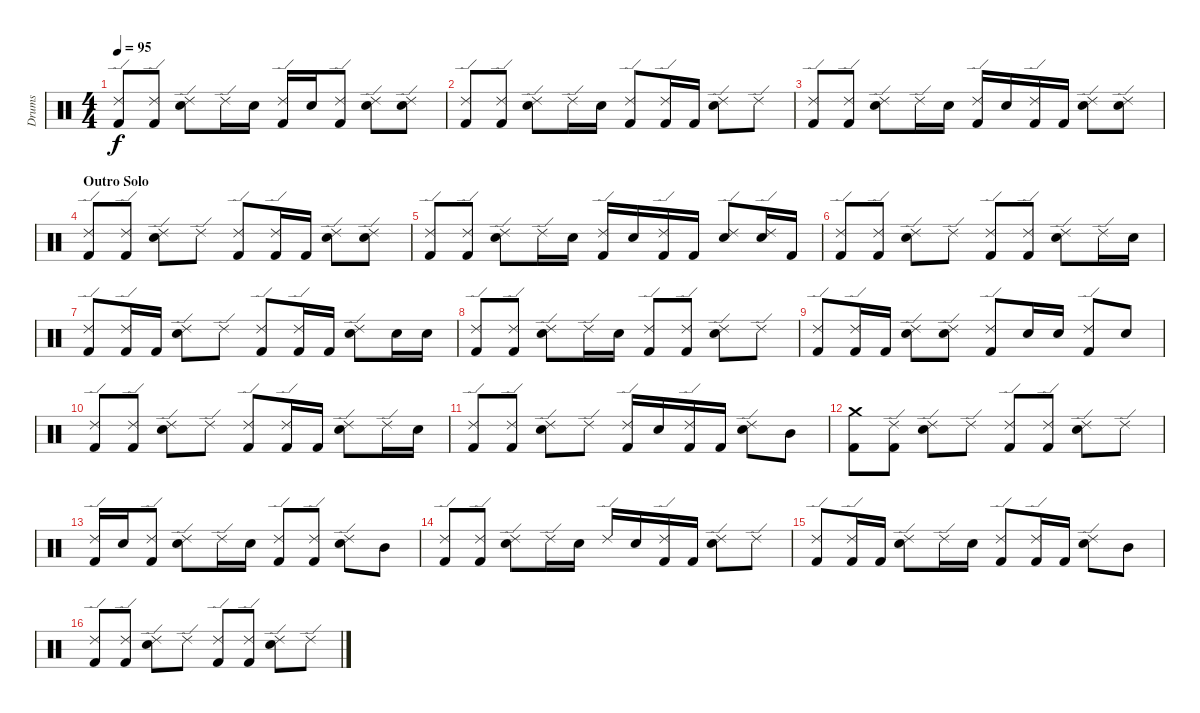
\track ("Drums" "Drums") {instrument percussion}
\staff {score}
\articulation defaults
\ts (4 4)
\tempo 95
\clef neutral
\ks c
("Ride (edge) 2" "Kick (hit) 2").8{dy f} ("Ride (edge) 2" "Kick (hit) 2").8 ("Ride (edge) 2" "Snare (hit) 2").8 "Ride (edge) 2".16 "Snare (hit) 2".16 ("Ride (edge) 2" "Kick (hit) 2").16 "Snare (hit) 2".16 ("Ride (edge) 2" "Kick (hit) 2").8 ("Ride (edge) 2" "Snare (hit) 2").8 ("Ride (edge) 2" "Snare (hit) 2").8 |
("Ride (edge) 2" "Kick (hit) 2").8 ("Ride (edge) 2" "Kick (hit) 2").8 ("Ride (edge) 2" "Snare (hit) 2").8 "Ride (edge) 2".16 "Snare (hit) 2".16 ("Ride (edge) 2" "Kick (hit) 2").8 ("Ride (edge) 2" "Kick (hit) 2").16 "Kick (hit) 2".16 ("Ride (edge) 2" "Snare (hit) 2").8 "Ride (edge) 2".8 |
("Ride (edge) 2" "Kick (hit) 2").8 ("Ride (edge) 2" "Kick (hit) 2").8 ("Ride (edge) 2" "Snare (hit) 2").8 "Ride (edge) 2".16 "Snare (hit) 2".16 ("Ride (edge) 2" "Kick (hit) 2").16 "Snare (hit) 2".16 ("Ride (edge) 2" "Kick (hit) 2").16 "Kick (hit) 2".16 ("Ride (edge) 2" "Snare (hit) 2").8 ("Ride (edge) 2" "Snare (hit) 2").8 |
\section ("" "Outro Solo")
("Ride (edge) 2" "Kick (hit) 2").8 ("Ride (edge) 2" "Kick (hit) 2").8 ("Ride (edge) 2" "Snare (hit) 2").8 "Ride (edge) 2".8 ("Ride (edge) 2" "Kick (hit) 2").8 ("Ride (edge) 2" "Kick (hit) 2").16 "Kick (hit) 2".16 ("Ride (edge) 2" "Snare (hit) 2").8 ("Ride (edge) 2" "Snare (hit) 2").8 |
("Ride (edge) 2" "Kick (hit) 2").8 ("Ride (edge) 2" "Kick (hit) 2").8 ("Ride (edge) 2" "Snare (hit) 2").8 "Ride (edge) 2".16 "Snare (hit) 2".16 ("Ride (edge) 2" "Kick (hit) 2").16 "Snare (hit) 2".16 ("Ride (edge) 2" "Kick (hit) 2").16 "Kick (hit) 2".16 ("Ride (edge) 2" "Snare (hit) 2").8 ("Ride (edge) 2" "Snare (hit) 2").16 "Kick (hit) 2".16 |
("Ride (edge) 2" "Kick (hit) 2").8 ("Ride (edge) 2" "Kick (hit) 2").8 ("Ride (edge) 2" "Snare (hit) 2").8 "Ride (edge) 2".8 ("Ride (edge) 2" "Kick (hit) 2").8 ("Ride (edge) 2" "Kick (hit) 2").8 ("Ride (edge) 2" "Snare (hit) 2").8 "Ride (edge) 2".16 "Snare (hit) 2".16 |
("Ride (edge) 2" "Kick (hit) 2").8 ("Ride (edge) 2" "Kick (hit) 2").16 "Kick (hit) 2".16 ("Ride (edge) 2" "Snare (hit) 2").8 "Ride (edge) 2".8 ("Ride (edge) 2" "Kick (hit) 2").8 ("Ride (edge) 2" "Kick (hit) 2").16 "Kick (hit) 2".16 ("Ride (edge) 2" "Snare (hit) 2").8 "Snare (hit) 2".16 "Snare (hit) 2".16 |
("Ride (edge) 2" "Kick (hit) 2").8 ("Ride (edge) 2" "Kick (hit) 2").8 ("Ride (edge) 2" "Snare (hit) 2").8 "Ride (edge) 2".16 "Snare (hit) 2".16 ("Ride (edge) 2" "Kick (hit) 2").8 ("Ride (edge) 2" "Kick (hit) 2").8 ("Ride (edge) 2" "Snare (hit) 2").8 "Ride (edge) 2".8 |
("Ride (edge) 2" "Kick (hit) 2").8 ("Ride (edge) 2" "Kick (hit) 2").16 "Kick (hit) 2".16 ("Ride (edge) 2" "Snare (hit) 2").8 ("Ride (edge) 2" "Snare (hit) 2").8 ("Ride (edge) 2" "Kick (hit) 2").8 "Snare (hit) 2".16 "Snare (hit) 2".16 ("Ride (edge) 2" "Kick (hit) 2").8 "Snare (hit) 2".8 |
("Ride (edge) 2" "Kick (hit) 2").8 ("Ride (edge) 2" "Kick (hit) 2").8 ("Ride (edge) 2" "Snare (hit) 2").8 "Ride (edge) 2".8 ("Ride (edge) 2" "Kick (hit) 2").8 ("Ride (edge) 2" "Kick (hit) 2").16 "Kick (hit) 2".16 ("Ride (edge) 2" "Snare (hit) 2").8 "Ride (edge) 2".16 "Snare (hit) 2".16 |
("Ride (edge) 2" "Kick (hit) 2").8 ("Ride (edge) 2" "Kick (hit) 2").8 ("Ride (edge) 2" "Snare (hit) 2").8 "Ride (edge) 2".8 ("Ride (edge) 2" "Kick (hit) 2").16 "Snare (hit) 2".16 ("Ride (edge) 2" "Kick (hit) 2").16 "Kick (hit) 2".16 ("Ride (edge) 2" "Snare (hit) 2").8 "Mid Tom (hit)".8 |
("Crash medium (hit)" "Kick (hit) 2").8 ("Ride (edge) 2" "Kick (hit) 2").8 ("Ride (edge) 2" "Snare (hit) 2").8 "Ride (edge) 2".8 ("Ride (edge) 2" "Kick (hit) 2").8 ("Ride (edge) 2" "Kick (hit) 2").8 ("Ride (edge) 2" "Snare (hit) 2").8 "Ride (edge) 2".8 |
("Ride (edge) 2" "Kick (hit) 2").16 "Snare (hit) 2".16 ("Ride (edge) 2" "Kick (hit) 2").8 ("Ride (edge) 2" "Snare (hit) 2").8 "Ride (edge) 2".16 "Snare (hit) 2".16 ("Ride (edge) 2" "Kick (hit) 2").8 ("Ride (edge) 2" "Kick (hit) 2").8 ("Ride (edge) 2" "Snare (hit) 2").8 "Mid Tom (hit)".8 |
("Ride (edge) 2" "Kick (hit) 2").8 ("Ride (edge) 2" "Kick (hit) 2").8 ("Ride (edge) 2" "Snare (hit) 2").8 "Ride (edge) 2".16 "Snare (hit) 2".16 "Ride (edge) 2".16 "Snare (hit) 2".16 ("Ride (edge) 2" "Kick (hit) 2").16 "Kick (hit) 2".16 ("Ride (edge) 2" "Snare (hit) 2").8 "Ride (edge) 2".8 |
("Ride (edge) 2" "Kick (hit) 2").8 ("Ride (edge) 2" "Kick (hit) 2").16 "Kick (hit) 2".16 ("Ride (edge) 2" "Snare (hit) 2").8 "Ride (edge) 2".16 "Snare (hit) 2".16 ("Ride (edge) 2" "Kick (hit) 2").8 ("Ride (edge) 2" "Kick (hit) 2").16 "Kick (hit) 2".16 ("Ride (edge) 2" "Snare (hit) 2").8 "Mid Tom (hit)".8 |
("Ride (edge) 2" "Kick (hit) 2").8 ("Ride (edge) 2" "Kick (hit) 2").8 ("Ride (edge) 2" "Snare (hit) 2").8 "Ride (edge) 2".8 ("Ride (edge) 2" "Kick (hit) 2").8 ("Ride (edge) 2" "Kick (hit) 2").8 ("Ride (edge) 2" "Snare (hit) 2").8 "Ride (edge) 2".8
